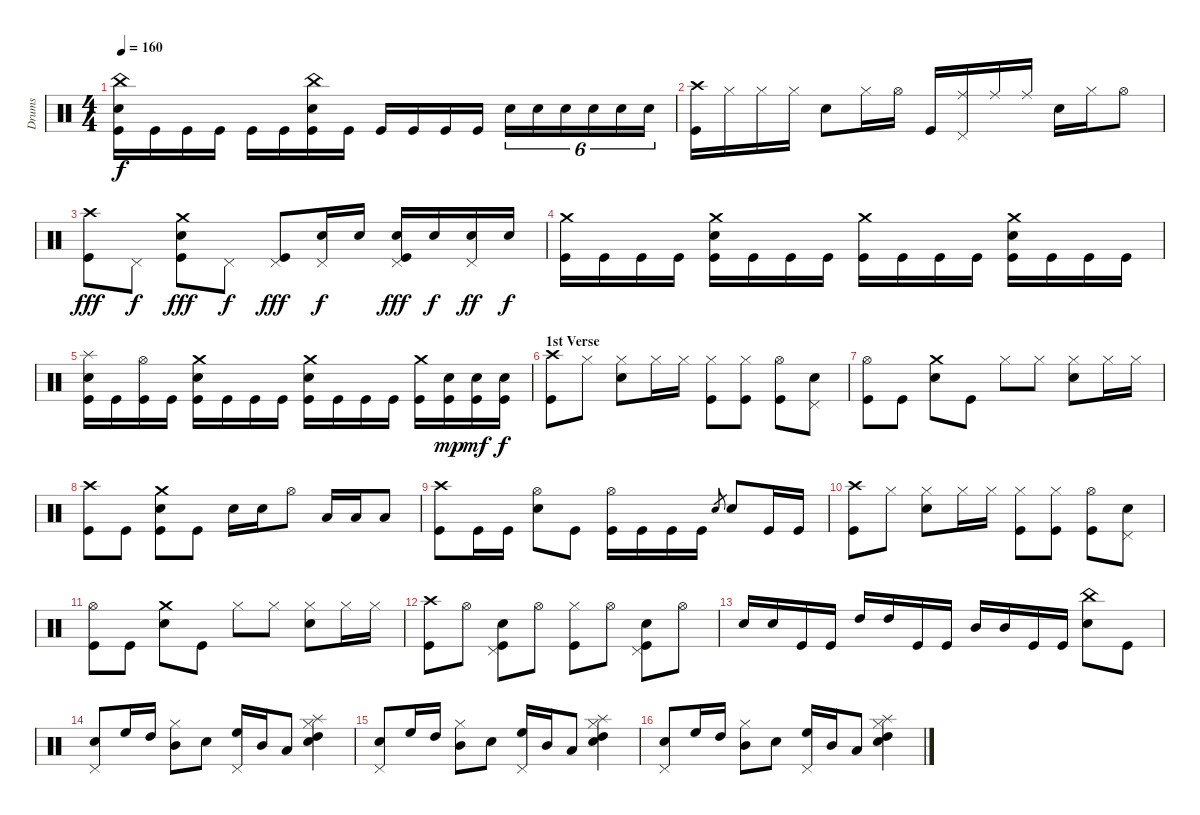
\track ("Drums" "Drums") {instrument percussion}
\staff {score}
\articulation defaults
\ts (4 4)
\tempo 160
\clef neutral
\ks c
("China (hit)" "Electric Snare (hit)" "Kick (hit)").16{dy f} "Kick (hit)".16 "Kick (hit)".16 "Kick (hit)".16 "Kick (hit)".16 "Kick (hit)".16 ("China (hit)" "Electric Snare (hit)" "Kick (hit)").16 "Kick (hit)".16 "Kick (hit)".16 "Kick (hit)".16 "Kick (hit)".16 "Kick (hit)".16 "Electric Snare (hit)".16{tu (6 4)} "Electric Snare (hit)".16{tu (6 4)} "Electric Snare (hit)".16{tu (6 4)} "Electric Snare (hit)".16{tu (6 4)} "Electric Snare (hit)".16{tu (6 4)} "Electric Snare (hit)".16{tu (6 4)} |
("Crash high (hit)" "Kick (hit)").16 "Hi-Hat (closed)".16 "Hi-Hat (closed)".16 "Hi-Hat (closed)".16 "Electric Snare (hit)".8 "Hi-Hat (closed)".16 "Hi-Hat (open)".16 "Kick (hit)".16 ("Ride (middle)" "Pedal Hi-Hat (hit)").16 "Ride (middle)".16 "Ride (middle)".16 "Electric Snare (hit)".16 "Hi-Hat (closed)".16 "Hi-Hat (open)".8 |
("Crash high (hit)" "Kick (hit)").8{dy fff} "Pedal Hi-Hat (hit)".8{dy f} ("Crash medium (hit)" "Electric Snare (hit)" "Kick (hit)").8{dy fff} "Pedal Hi-Hat (hit)".8{dy f} ("Pedal Hi-Hat (hit)" "Kick (hit)").8{dy fff} ("Pedal Hi-Hat (hit)" "Electric Snare (hit)").16{dy f} "Electric Snare (hit)".16 ("Pedal Hi-Hat (hit)" "Electric Snare (hit)" "Kick (hit)").16{dy fff} "Electric Snare (hit)".16{dy f} ("Pedal Hi-Hat (hit)" "Electric Snare (hit)").16{dy ff} "Electric Snare (hit)".16{dy f} |
("Crash medium (hit)" "Kick (hit)").16 "Kick (hit)".16 "Kick (hit)".16 "Kick (hit)".16 ("Crash medium (hit)" "Electric Snare (hit)" "Kick (hit)").16 "Kick (hit)".16 "Kick (hit)".16 "Kick (hit)".16 ("Crash medium (hit)" "Kick (hit)").16 "Kick (hit)".16 "Kick (hit)".16 "Kick (hit)".16 ("Crash medium (hit)" "Electric Snare (hit)" "Kick (hit)").16 "Kick (hit)".16 "Kick (hit)".16 "Kick (hit)".16 |
("Splash (hit)" "Electric Snare (hit)" "Kick (hit)").16 "Kick (hit)".16 ("Hi-Hat (open)" "Kick (hit)").16 "Kick (hit)".16 ("Crash medium (hit)" "Electric Snare (hit)" "Kick (hit)").16 "Kick (hit)".16 "Kick (hit)".16 "Kick (hit)".16 ("Crash medium (hit)" "Electric Snare (hit)" "Kick (hit)").16 "Kick (hit)".16 "Kick (hit)".16 "Kick (hit)".16 ("Crash medium (hit)" "Kick (hit)").16 ("Electric Snare (hit)" "Kick (hit)").16{dy mp} ("Electric Snare (hit)" "Kick (hit)").16{dy mf} ("Electric Snare (hit)" "Kick (hit)").16{dy f} |
\section ("" "1st Verse")
("Crash high (hit)" "Kick (hit)").8 "Hi-Hat (closed)".8 ("Hi-Hat (closed)" "Electric Snare (hit)").8 "Hi-Hat (closed)".16 "Hi-Hat (closed)".16 ("Hi-Hat (closed)" "Kick (hit)").8 ("Hi-Hat (closed)" "Kick (hit)").8 ("Hi-Hat (open)" "Kick (hit)").8 ("Electric Snare (hit)" "Pedal Hi-Hat (hit)").8 |
("Hi-Hat (open)" "Kick (hit)").8 "Kick (hit)".8 ("Crash medium (hit)" "Electric Snare (hit)").8 "Kick (hit)".8 "Hi-Hat (closed)".8 "Hi-Hat (closed)".8 ("Hi-Hat (closed)" "Electric Snare (hit)").8 "Hi-Hat (closed)".16 "Hi-Hat (closed)".16 |
("Crash high (hit)" "Kick (hit)").8 "Kick (hit)".8 ("Crash medium (hit)" "Electric Snare (hit)" "Kick (hit)").8 "Kick (hit)".8 "Electric Snare (hit)".16 "Electric Snare (hit)".16 "Hi-Hat (open)".8 "Low Tom (hit)".16 "Low Tom (hit)".16 "Low Tom (hit)".8 |
("Crash high (hit)" "Kick (hit)").8 "Kick (hit)".16 "Kick (hit)".16 ("Hi-Hat (open)" "Electric Snare (hit)").8 "Kick (hit)".8 ("Hi-Hat (open)" "Kick (hit)").16 "Kick (hit)".16 "Kick (hit)".16 "Kick (hit)".16 "Electric Snare (hit)".8{gr} "Electric Snare (hit)".8 "Kick (hit)".16 "Kick (hit)".16 |
("Crash high (hit)" "Kick (hit)").8 "Hi-Hat (closed)".8 ("Hi-Hat (closed)" "Electric Snare (hit)").8 "Hi-Hat (closed)".16 "Hi-Hat (closed)".16 ("Hi-Hat (closed)" "Kick (hit)").8 ("Hi-Hat (closed)" "Kick (hit)").8 ("Hi-Hat (open)" "Kick (hit)").8 ("Electric Snare (hit)" "Pedal Hi-Hat (hit)").8 |
("Hi-Hat (open)" "Kick (hit)").8 "Kick (hit)".8 ("Crash medium (hit)" "Electric Snare (hit)").8 "Kick (hit)".8 "Hi-Hat (closed)".8 "Hi-Hat (closed)".8 ("Hi-Hat (closed)" "Electric Snare (hit)").8 "Hi-Hat (closed)".16 "Hi-Hat (closed)".16 |
("Crash high (hit)" "Kick (hit)").8 "Hi-Hat (open)".8 ("Electric Snare (hit)" "Kick (hit)" "Pedal Hi-Hat (hit)").8 "Hi-Hat (open)".8 ("Hi-Hat (closed)" "Kick (hit)").8 "Hi-Hat (open)".8 ("Electric Snare (hit)" "Kick (hit)" "Pedal Hi-Hat (hit)").8 "Hi-Hat (open)".8 |
"Electric Snare (hit)".16 "Electric Snare (hit)".16 "Kick (hit)".16 "Kick (hit)".16 "High Tom (hit)".16 "High Tom (hit)".16 "Kick (hit)".16 "Kick (hit)".16 "Mid Tom (hit)".16 "Mid Tom (hit)".16 "Kick (hit)".16 "Kick (hit)".16 ("China (hit)" "Electric Snare (hit)").8 "Kick (hit)".8 |
("Pedal Hi-Hat (hit)" "Electric Snare (hit)").8 "High Floor Tom (hit)".16 "High Tom (hit)".16 ("Hi-Hat (closed)" "Mid Tom (hit)").8 "Electric Snare (hit)".8 ("Pedal Hi-Hat (hit)" "High Floor Tom (hit)").16 "Mid Tom (hit)".16 "Low Tom (hit)".8 ("Splash (hit)" "Hi-Hat (closed)" "Electric Snare (hit)" "High Tom (hit)").4 |
("Pedal Hi-Hat (hit)" "Electric Snare (hit)").8 "High Floor Tom (hit)".16 "High Tom (hit)".16 ("Hi-Hat (closed)" "Mid Tom (hit)").8 "Electric Snare (hit)".8 ("Pedal Hi-Hat (hit)" "High Floor Tom (hit)").16 "Mid Tom (hit)".16 "Low Tom (hit)".8 ("Splash (hit)" "Hi-Hat (closed)" "Electric Snare (hit)" "High Tom (hit)").4 |
("Pedal Hi-Hat (hit)" "Electric Snare (hit)").8 "High Floor Tom (hit)".16 "High Tom (hit)".16 ("Hi-Hat (closed)" "Mid Tom (hit)").8 "Electric Snare (hit)".8 ("Pedal Hi-Hat (hit)" "High Floor Tom (hit)").16 "Mid Tom (hit)".16 "Low Tom (hit)".8 ("Splash (hit)" "Hi-Hat (closed)" "Electric Snare (hit)" "High Tom (hit)").4
